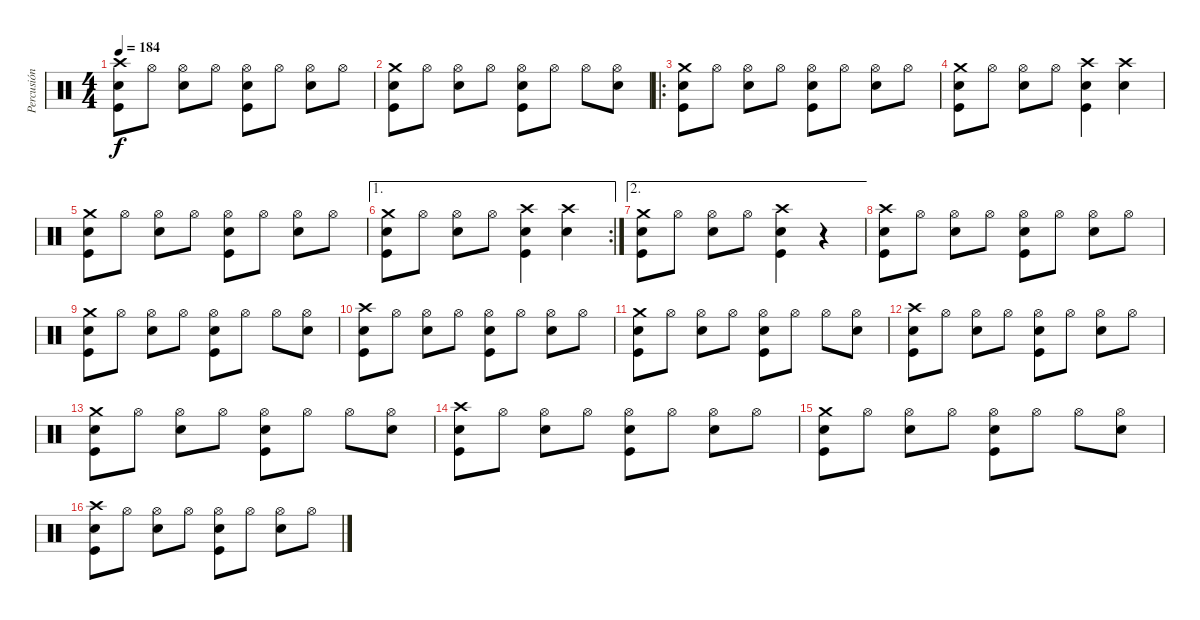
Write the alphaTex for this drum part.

\track ("Percusión" "Percusión") {instrument percussion}
\staff {score}
\articulation defaults
\ts (4 4)
\tempo 184
\clef neutral
\ks c
("Crash high (hit)" "Electric Snare (hit)" "Kick (hit)").8{dy f} "Hi-Hat (open)".8 ("Hi-Hat (open)" "Electric Snare (hit)").8 "Hi-Hat (open)".8 ("Hi-Hat (open)" "Electric Snare (hit)" "Kick (hit)").8 "Hi-Hat (open)".8 ("Hi-Hat (open)" "Electric Snare (hit)").8 "Hi-Hat (open)".8 |
("Crash medium (hit)" "Electric Snare (hit)" "Kick (hit)").8 "Hi-Hat (open)".8 ("Hi-Hat (open)" "Electric Snare (hit)").8 "Hi-Hat (open)".8 ("Hi-Hat (open)" "Electric Snare (hit)" "Kick (hit)").8 "Hi-Hat (open)".8 "Hi-Hat (open)".8 ("Hi-Hat (open)" "Electric Snare (hit)").8 |
\ro
("Crash medium (hit)" "Electric Snare (hit)" "Kick (hit)").8 "Hi-Hat (open)".8 ("Hi-Hat (open)" "Electric Snare (hit)").8 "Hi-Hat (open)".8 ("Hi-Hat (open)" "Electric Snare (hit)" "Kick (hit)").8 "Hi-Hat (open)".8 ("Hi-Hat (open)" "Electric Snare (hit)").8 "Hi-Hat (open)".8 |
("Crash medium (hit)" "Electric Snare (hit)" "Kick (hit)").8 "Hi-Hat (open)".8 ("Hi-Hat (open)" "Electric Snare (hit)").8 "Hi-Hat (open)".8 ("Crash high (hit)" "Electric Snare (hit)" "Kick (hit)").4 ("Crash high (hit)" "Electric Snare (hit)").4 |
("Crash medium (hit)" "Electric Snare (hit)" "Kick (hit)").8 "Hi-Hat (open)".8 ("Hi-Hat (open)" "Electric Snare (hit)").8 "Hi-Hat (open)".8 ("Hi-Hat (open)" "Electric Snare (hit)" "Kick (hit)").8 "Hi-Hat (open)".8 ("Hi-Hat (open)" "Electric Snare (hit)").8 "Hi-Hat (open)".8 |
\ae 1
\rc 2
("Crash medium (hit)" "Electric Snare (hit)" "Kick (hit)").8 "Hi-Hat (open)".8 ("Hi-Hat (open)" "Electric Snare (hit)").8 "Hi-Hat (open)".8 ("Crash high (hit)" "Electric Snare (hit)" "Kick (hit)").4 ("Crash high (hit)" "Electric Snare (hit)").4 |
\ae 2
("Crash medium (hit)" "Electric Snare (hit)" "Kick (hit)").8 "Hi-Hat (open)".8 ("Hi-Hat (open)" "Electric Snare (hit)").8 "Hi-Hat (open)".8 ("Crash high (hit)" "Electric Snare (hit)" "Kick (hit)").4 r.4 |
("Crash high (hit)" "Electric Snare (hit)" "Kick (hit)").8 "Hi-Hat (open)".8 ("Hi-Hat (open)" "Electric Snare (hit)").8 "Hi-Hat (open)".8 ("Hi-Hat (open)" "Electric Snare (hit)" "Kick (hit)").8 "Hi-Hat (open)".8 ("Hi-Hat (open)" "Electric Snare (hit)").8 "Hi-Hat (open)".8 |
("Crash medium (hit)" "Electric Snare (hit)" "Kick (hit)").8 "Hi-Hat (open)".8 ("Hi-Hat (open)" "Electric Snare (hit)").8 "Hi-Hat (open)".8 ("Hi-Hat (open)" "Electric Snare (hit)" "Kick (hit)").8 "Hi-Hat (open)".8 "Hi-Hat (open)".8 ("Hi-Hat (open)" "Electric Snare (hit)").8 |
("Crash high (hit)" "Electric Snare (hit)" "Kick (hit)").8 "Hi-Hat (open)".8 ("Hi-Hat (open)" "Electric Snare (hit)").8 "Hi-Hat (open)".8 ("Hi-Hat (open)" "Electric Snare (hit)" "Kick (hit)").8 "Hi-Hat (open)".8 ("Hi-Hat (open)" "Electric Snare (hit)").8 "Hi-Hat (open)".8 |
("Crash medium (hit)" "Electric Snare (hit)" "Kick (hit)").8 "Hi-Hat (open)".8 ("Hi-Hat (open)" "Electric Snare (hit)").8 "Hi-Hat (open)".8 ("Hi-Hat (open)" "Electric Snare (hit)" "Kick (hit)").8 "Hi-Hat (open)".8 "Hi-Hat (open)".8 ("Hi-Hat (open)" "Electric Snare (hit)").8 |
("Crash high (hit)" "Electric Snare (hit)" "Kick (hit)").8 "Hi-Hat (open)".8 ("Hi-Hat (open)" "Electric Snare (hit)").8 "Hi-Hat (open)".8 ("Hi-Hat (open)" "Electric Snare (hit)" "Kick (hit)").8 "Hi-Hat (open)".8 ("Hi-Hat (open)" "Electric Snare (hit)").8 "Hi-Hat (open)".8 |
("Crash medium (hit)" "Electric Snare (hit)" "Kick (hit)").8 "Hi-Hat (open)".8 ("Hi-Hat (open)" "Electric Snare (hit)").8 "Hi-Hat (open)".8 ("Hi-Hat (open)" "Electric Snare (hit)" "Kick (hit)").8 "Hi-Hat (open)".8 "Hi-Hat (open)".8 ("Hi-Hat (open)" "Electric Snare (hit)").8 |
("Crash high (hit)" "Electric Snare (hit)" "Kick (hit)").8 "Hi-Hat (open)".8 ("Hi-Hat (open)" "Electric Snare (hit)").8 "Hi-Hat (open)".8 ("Hi-Hat (open)" "Electric Snare (hit)" "Kick (hit)").8 "Hi-Hat (open)".8 ("Hi-Hat (open)" "Electric Snare (hit)").8 "Hi-Hat (open)".8 |
("Crash medium (hit)" "Electric Snare (hit)" "Kick (hit)").8 "Hi-Hat (open)".8 ("Hi-Hat (open)" "Electric Snare (hit)").8 "Hi-Hat (open)".8 ("Hi-Hat (open)" "Electric Snare (hit)" "Kick (hit)").8 "Hi-Hat (open)".8 "Hi-Hat (open)".8 ("Hi-Hat (open)" "Electric Snare (hit)").8 |
("Crash high (hit)" "Electric Snare (hit)" "Kick (hit)").8 "Hi-Hat (open)".8 ("Hi-Hat (open)" "Electric Snare (hit)").8 "Hi-Hat (open)".8 ("Hi-Hat (open)" "Electric Snare (hit)" "Kick (hit)").8 "Hi-Hat (open)".8 ("Hi-Hat (open)" "Electric Snare (hit)").8 "Hi-Hat (open)".8
